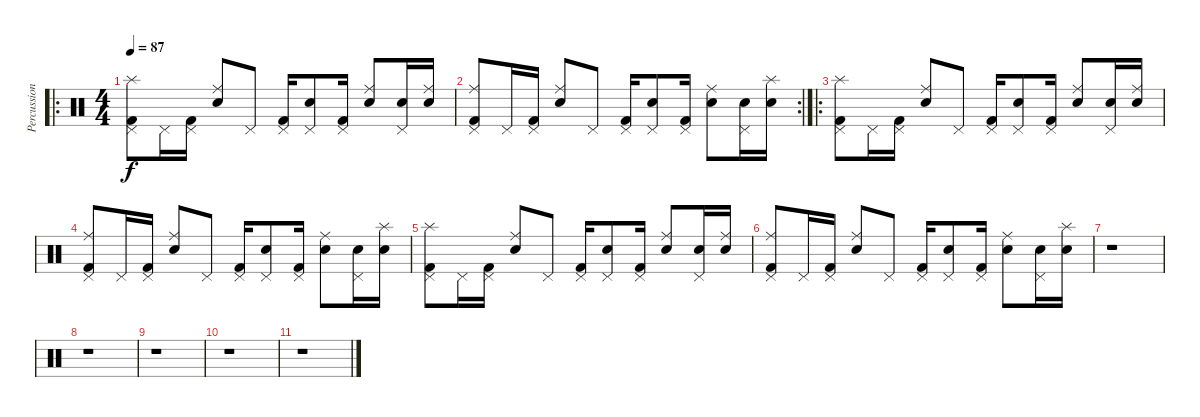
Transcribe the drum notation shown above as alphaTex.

\track ("Percussions" "Percussion") {instrument percussion}
\staff {score}
\articulation defaults
\ro
\ts (4 4)
\tempo 87
\clef neutral
\ks c
("Splash (hit)" "Pedal Hi-Hat (hit)" "Kick (hit) 2").8{dy f} "Pedal Hi-Hat (hit)".16 ("Pedal Hi-Hat (hit)" "Kick (hit) 2").16 ("Ride (middle)" "Snare (hit) 2").8 "Pedal Hi-Hat (hit)".8 ("Pedal Hi-Hat (hit)" "Kick (hit) 2").16 ("Pedal Hi-Hat (hit)" "Snare (hit) 2").8 ("Pedal Hi-Hat (hit)" "Kick (hit) 2").16 ("Ride (middle)" "Snare (hit) 2").8 ("Pedal Hi-Hat (hit)" "Snare (hit) 2").16 ("Ride (middle)" "Snare (hit) 2").16 |
\rc 2
("Ride (middle)" "Pedal Hi-Hat (hit)" "Kick (hit) 2").8 "Pedal Hi-Hat (hit)".16 ("Pedal Hi-Hat (hit)" "Kick (hit) 2").16 ("Ride (middle)" "Snare (hit) 2").8 "Pedal Hi-Hat (hit)".8 ("Pedal Hi-Hat (hit)" "Kick (hit) 2").16 ("Pedal Hi-Hat (hit)" "Snare (hit) 2").8 ("Pedal Hi-Hat (hit)" "Kick (hit) 2").16 ("Ride (middle)" "Snare (hit) 2").8 ("Pedal Hi-Hat (hit)" "Snare (hit) 2").16 ("Splash (hit)" "Snare (hit) 2").16 |
\ro
("Splash (hit)" "Pedal Hi-Hat (hit)" "Kick (hit) 2").8 "Pedal Hi-Hat (hit)".16 ("Pedal Hi-Hat (hit)" "Kick (hit) 2").16 ("Ride (middle)" "Snare (hit) 2").8 "Pedal Hi-Hat (hit)".8 ("Pedal Hi-Hat (hit)" "Kick (hit) 2").16 ("Pedal Hi-Hat (hit)" "Snare (hit) 2").8 ("Pedal Hi-Hat (hit)" "Kick (hit) 2").16 ("Ride (middle)" "Snare (hit) 2").8 ("Pedal Hi-Hat (hit)" "Snare (hit) 2").16 ("Ride (middle)" "Snare (hit) 2").16 |
("Ride (middle)" "Pedal Hi-Hat (hit)" "Kick (hit) 2").8 "Pedal Hi-Hat (hit)".16 ("Pedal Hi-Hat (hit)" "Kick (hit) 2").16 ("Ride (middle)" "Snare (hit) 2").8 "Pedal Hi-Hat (hit)".8 ("Pedal Hi-Hat (hit)" "Kick (hit) 2").16 ("Pedal Hi-Hat (hit)" "Snare (hit) 2").8 ("Pedal Hi-Hat (hit)" "Kick (hit) 2").16 ("Ride (middle)" "Snare (hit) 2").8 ("Pedal Hi-Hat (hit)" "Snare (hit) 2").16 ("Splash (hit)" "Snare (hit) 2").16 |
("Splash (hit)" "Pedal Hi-Hat (hit)" "Kick (hit) 2").8 "Pedal Hi-Hat (hit)".16 ("Pedal Hi-Hat (hit)" "Kick (hit) 2").16 ("Ride (middle)" "Snare (hit) 2").8 "Pedal Hi-Hat (hit)".8 ("Pedal Hi-Hat (hit)" "Kick (hit) 2").16 ("Pedal Hi-Hat (hit)" "Snare (hit) 2").8 ("Pedal Hi-Hat (hit)" "Kick (hit) 2").16 ("Ride (middle)" "Snare (hit) 2").8 ("Pedal Hi-Hat (hit)" "Snare (hit) 2").16 ("Ride (middle)" "Snare (hit) 2").16 |
("Ride (middle)" "Pedal Hi-Hat (hit)" "Kick (hit) 2").8 "Pedal Hi-Hat (hit)".16 ("Pedal Hi-Hat (hit)" "Kick (hit) 2").16 ("Ride (middle)" "Snare (hit) 2").8 "Pedal Hi-Hat (hit)".8 ("Pedal Hi-Hat (hit)" "Kick (hit) 2").16 ("Pedal Hi-Hat (hit)" "Snare (hit) 2").8 ("Pedal Hi-Hat (hit)" "Kick (hit) 2").16 ("Ride (middle)" "Snare (hit) 2").8 ("Pedal Hi-Hat (hit)" "Snare (hit) 2").16 ("Splash (hit)" "Snare (hit) 2").16 |
r.1 |
r.1 |
r.1 |
r.1 |
r.1
